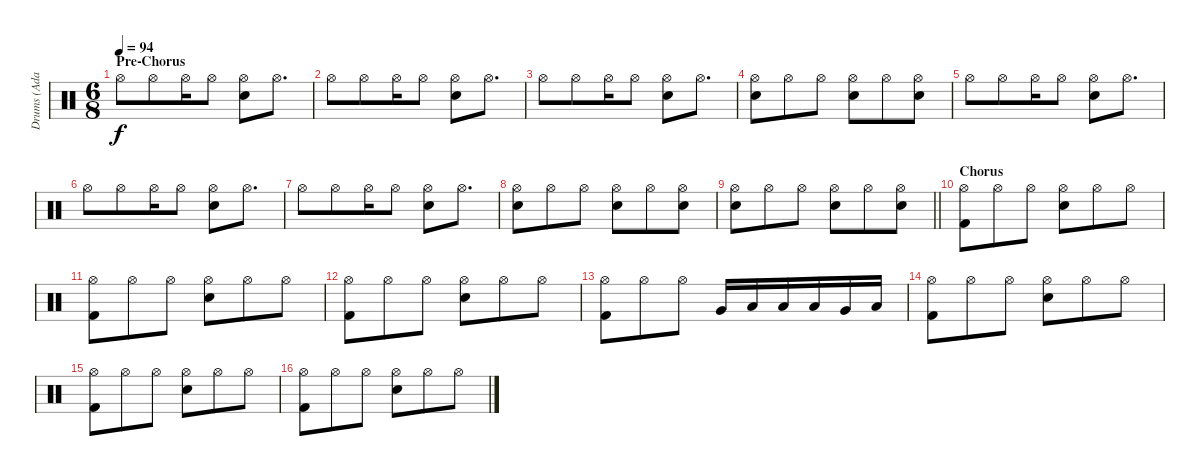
\track ("Drums (Adam)" "Drums (Ada") {instrument percussion}
\staff {score}
\articulation defaults
\ts (6 8)
\section ("" "Pre-Chorus")
\tempo 94
\clef neutral
\ks c "Hi-Hat (open)".8{dy f} "Hi-Hat (open)".8 "Hi-Hat (open)".16 "Hi-Hat (open)".8
("Hi-Hat (open)" "Snare (hit) 2").8 "Hi-Hat (open)".8{d} |
"Hi-Hat (open)".8 "Hi-Hat (open)".8 "Hi-Hat (open)".16 "Hi-Hat (open)".8 ("Hi-Hat (open)" "Snare (hit) 2").8 "Hi-Hat (open)".8{d} |
"Hi-Hat (open)".8 "Hi-Hat (open)".8 "Hi-Hat (open)".16 "Hi-Hat (open)".8 ("Hi-Hat (open)" "Snare (hit) 2").8 "Hi-Hat (open)".8{d} |
("Hi-Hat (open)" "Snare (hit) 2").8 "Hi-Hat (open)".8 "Hi-Hat (open)".8 ("Hi-Hat (open)" "Snare (hit) 2").8 "Hi-Hat (open)".8 ("Hi-Hat (open)" "Snare (hit) 2").8 |
"Hi-Hat (open)".8 "Hi-Hat (open)".8 "Hi-Hat (open)".16 "Hi-Hat (open)".8 ("Hi-Hat (open)" "Snare (hit) 2").8 "Hi-Hat (open)".8{d} |
"Hi-Hat (open)".8 "Hi-Hat (open)".8 "Hi-Hat (open)".16 "Hi-Hat (open)".8 ("Hi-Hat (open)" "Snare (hit) 2").8 "Hi-Hat (open)".8{d} |
"Hi-Hat (open)".8 "Hi-Hat (open)".8 "Hi-Hat (open)".16 "Hi-Hat (open)".8 ("Hi-Hat (open)" "Snare (hit) 2").8 "Hi-Hat (open)".8{d} |
("Hi-Hat (open)" "Snare (hit) 2").8 "Hi-Hat (open)".8 "Hi-Hat (open)".8 ("Hi-Hat (open)" "Snare (hit) 2").8 "Hi-Hat (open)".8 ("Hi-Hat (open)" "Snare (hit) 2").8 |
\barLineRight lightlight
("Hi-Hat (open)" "Snare (hit) 2").8 "Hi-Hat (open)".8 "Hi-Hat (open)".8 ("Hi-Hat (open)" "Snare (hit) 2").8 "Hi-Hat (open)".8 ("Hi-Hat (open)" "Snare (hit) 2").8 |
\section ("" "Chorus")
("Hi-Hat (open)" "Kick (hit) 2").8 "Hi-Hat (open)".8 "Hi-Hat (open)".8 ("Hi-Hat (open)" "Snare (hit) 2").8 "Hi-Hat (open)".8 "Hi-Hat (open)".8 |
("Hi-Hat (open)" "Kick (hit) 2").8 "Hi-Hat (open)".8 "Hi-Hat (open)".8 ("Hi-Hat (open)" "Snare (hit) 2").8 "Hi-Hat (open)".8 "Hi-Hat (open)".8 |
("Hi-Hat (open)" "Kick (hit) 2").8 "Hi-Hat (open)".8 "Hi-Hat (open)".8 ("Hi-Hat (open)" "Snare (hit) 2").8 "Hi-Hat (open)".8 "Hi-Hat (open)".8 |
("Hi-Hat (open)" "Kick (hit) 2").8 "Hi-Hat (open)".8 "Hi-Hat (open)".8 "Very Low Tom (hit)".16 "Low Floor Tom (hit)".16 "Low Tom (hit)".16 "Low Floor Tom (hit)".16 "Very Low Tom (hit)".16 "Low Floor Tom (hit)".16 |
("Hi-Hat (open)" "Kick (hit) 2").8 "Hi-Hat (open)".8 "Hi-Hat (open)".8 ("Hi-Hat (open)" "Snare (hit) 2").8 "Hi-Hat (open)".8 "Hi-Hat (open)".8 |
("Hi-Hat (open)" "Kick (hit) 2").8 "Hi-Hat (open)".8 "Hi-Hat (open)".8 ("Hi-Hat (open)" "Snare (hit) 2").8 "Hi-Hat (open)".8 "Hi-Hat (open)".8 |
("Hi-Hat (open)" "Kick (hit) 2").8 "Hi-Hat (open)".8 "Hi-Hat (open)".8 ("Hi-Hat (open)" "Snare (hit) 2").8 "Hi-Hat (open)".8 "Hi-Hat (open)".8
